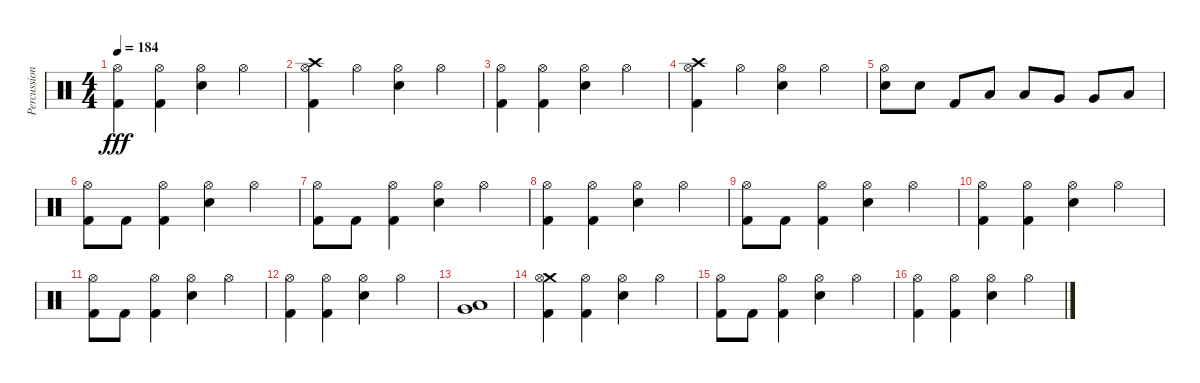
\track ("Percussion" "Percussion") {instrument percussion}
\staff {score}
\articulation defaults
\ts (4 4)
\tempo 184
\clef neutral
\ks c
("Hi-Hat (open)" "Kick (hit) 2").4{dy fff} ("Hi-Hat (open)" "Kick (hit) 2").4 ("Hi-Hat (open)" "Snare (hit) 2").4 "Hi-Hat (open)".4 |
("Crash high (hit)" "Hi-Hat (open)" "Kick (hit) 2").4 "Hi-Hat (open)".4 ("Hi-Hat (open)" "Snare (hit) 2").4 "Hi-Hat (open)".4 |
("Hi-Hat (open)" "Kick (hit) 2").4 ("Hi-Hat (open)" "Kick (hit) 2").4 ("Hi-Hat (open)" "Snare (hit) 2").4 "Hi-Hat (open)".4 |
("Crash high (hit)" "Hi-Hat (open)" "Kick (hit) 2").4 "Hi-Hat (open)".4 ("Hi-Hat (open)" "Snare (hit) 2").4 "Hi-Hat (open)".4 |
("Hi-Hat (open)" "Snare (hit) 2").8 "Snare (hit) 2".8 "Kick (hit) 2".8 "Low Tom (hit)".8 "Low Tom (hit)".8 "Very Low Tom (hit)".8 "Very Low Tom (hit)".8 "Low Floor Tom (hit)".8 |
("Hi-Hat (open)" "Kick (hit) 2").8 "Kick (hit) 2".8 ("Hi-Hat (open)" "Kick (hit) 2").4 ("Hi-Hat (open)" "Snare (hit) 2").4 "Hi-Hat (open)".4 |
("Hi-Hat (open)" "Kick (hit) 2").8 "Kick (hit) 2".8 ("Hi-Hat (open)" "Kick (hit) 2").4 ("Hi-Hat (open)" "Snare (hit) 2").4 "Hi-Hat (open)".4 |
("Hi-Hat (open)" "Kick (hit) 2").4 ("Hi-Hat (open)" "Kick (hit) 2").4 ("Hi-Hat (open)" "Snare (hit) 2").4 "Hi-Hat (open)".4 |
("Hi-Hat (open)" "Kick (hit) 2").8 "Kick (hit) 2".8 ("Hi-Hat (open)" "Kick (hit) 2").4 ("Hi-Hat (open)" "Snare (hit) 2").4 "Hi-Hat (open)".4 |
("Hi-Hat (open)" "Kick (hit) 2").4 ("Hi-Hat (open)" "Kick (hit) 2").4 ("Hi-Hat (open)" "Snare (hit) 2").4 "Hi-Hat (open)".4 |
("Hi-Hat (open)" "Kick (hit) 2").8 "Kick (hit) 2".8 ("Hi-Hat (open)" "Kick (hit) 2").4 ("Hi-Hat (open)" "Snare (hit) 2").4 "Hi-Hat (open)".4 |
("Hi-Hat (open)" "Kick (hit) 2").4 ("Hi-Hat (open)" "Kick (hit) 2").4 ("Hi-Hat (open)" "Snare (hit) 2").4 "Hi-Hat (open)".4 |
("Very Low Tom (hit)" "Low Floor Tom (hit)").1 |
("Crash medium (hit)" "Hi-Hat (open)" "Kick (hit) 2").4 ("Hi-Hat (open)" "Kick (hit) 2").4 ("Hi-Hat (open)" "Snare (hit) 2").4 "Hi-Hat (open)".4 |
("Hi-Hat (open)" "Kick (hit) 2").8 "Kick (hit) 2".8 ("Hi-Hat (open)" "Kick (hit) 2").4 ("Hi-Hat (open)" "Snare (hit) 2").4 "Hi-Hat (open)".4 |
("Hi-Hat (open)" "Kick (hit) 2").4 ("Hi-Hat (open)" "Kick (hit) 2").4 ("Hi-Hat (open)" "Snare (hit) 2").4 "Hi-Hat (open)".4
